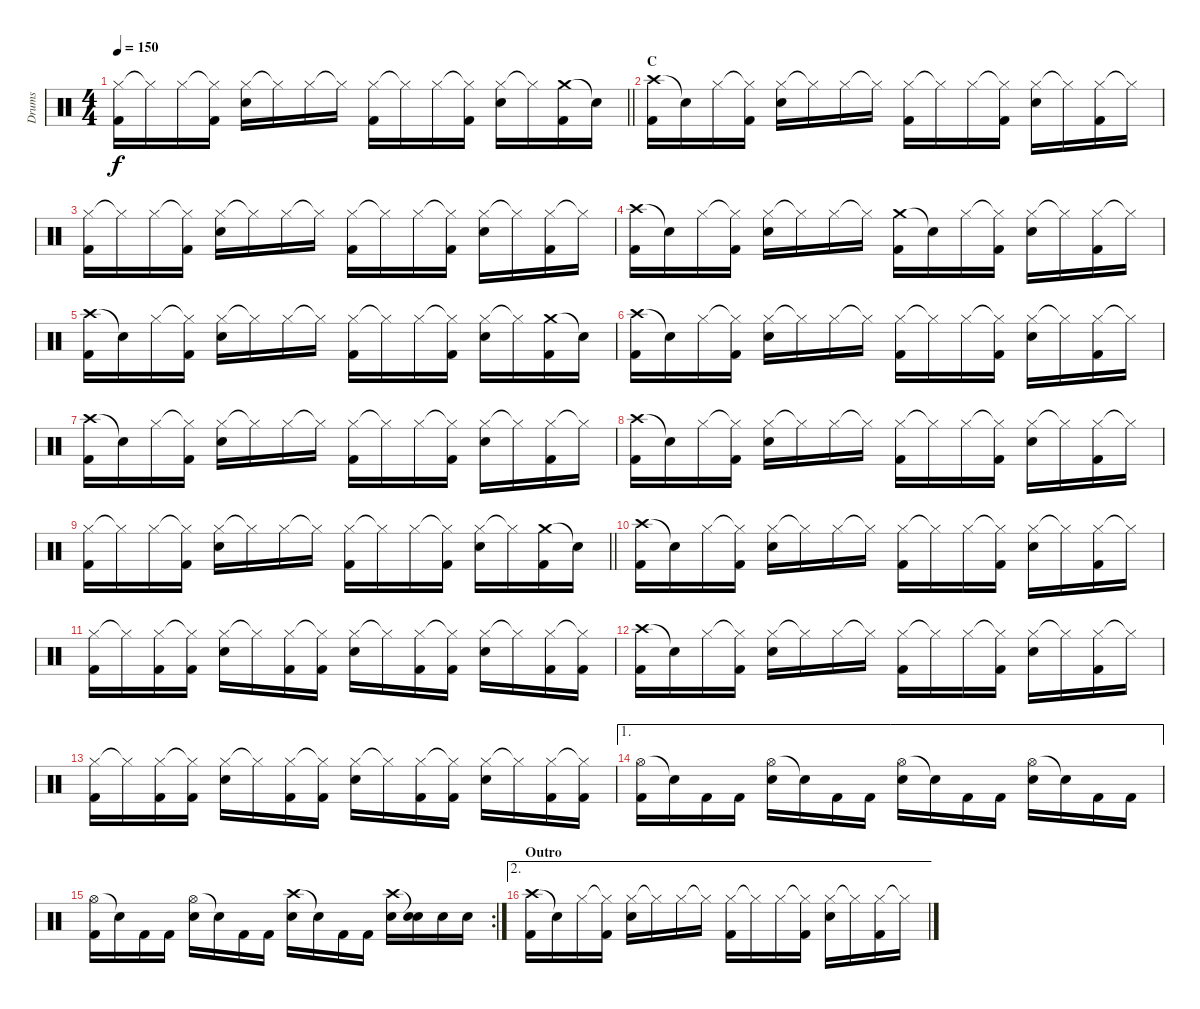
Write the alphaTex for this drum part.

\track ("Drums" "Drums") {instrument percussion}
\staff {score}
\articulation defaults
\ts (4 4)
\tempo 150
\clef neutral
\barLineRight lightlight
\ks c
("Hi-Hat (closed)" "Kick (hit) 2").16{dy f} "Hi-Hat (closed)"{t}.16 "Hi-Hat (closed)".16 ("Hi-Hat (closed)"{t} "Kick (hit) 2").16 ("Hi-Hat (closed)" "Snare (hit) 2").16 "Hi-Hat (closed)"{t}.16 "Hi-Hat (closed)".16 "Hi-Hat (closed)"{t}.16 ("Hi-Hat (closed)" "Kick (hit) 2").16 "Hi-Hat (closed)"{t}.16 "Hi-Hat (closed)".16 ("Hi-Hat (closed)"{t} "Kick (hit) 2").16 ("Hi-Hat (closed)" "Snare (hit) 2").16 "Hi-Hat (closed)"{t}.16 ("Crash medium (hit)" "Kick (hit) 2").16 "Snare (hit)"{t}.16 |
\section ("" "C")
("Crash high (hit)" "Kick (hit) 2").16 "Snare (hit)"{t}.16 "Hi-Hat (closed)".16 ("Hi-Hat (closed)"{t} "Kick (hit) 2").16 ("Hi-Hat (closed)" "Snare (hit) 2").16 "Hi-Hat (closed)"{t}.16 "Hi-Hat (closed)".16 "Hi-Hat (closed)"{t}.16 ("Hi-Hat (closed)" "Kick (hit) 2").16 "Hi-Hat (closed)"{t}.16 "Hi-Hat (closed)".16 ("Hi-Hat (closed)"{t} "Kick (hit) 2").16 ("Hi-Hat (closed)" "Snare (hit) 2").16 "Hi-Hat (closed)"{t}.16 ("Hi-Hat (closed)" "Kick (hit) 2").16 "Hi-Hat (closed)"{t}.16 |
("Hi-Hat (closed)" "Kick (hit) 2").16 "Hi-Hat (closed)"{t}.16 "Hi-Hat (closed)".16 ("Hi-Hat (closed)"{t} "Kick (hit) 2").16 ("Hi-Hat (closed)" "Snare (hit) 2").16 "Hi-Hat (closed)"{t}.16 "Hi-Hat (closed)".16 "Hi-Hat (closed)"{t}.16 ("Hi-Hat (closed)" "Kick (hit) 2").16 "Hi-Hat (closed)"{t}.16 "Hi-Hat (closed)".16 ("Hi-Hat (closed)"{t} "Kick (hit) 2").16 ("Hi-Hat (closed)" "Snare (hit) 2").16 "Hi-Hat (closed)"{t}.16 ("Hi-Hat (closed)" "Kick (hit) 2").16 "Hi-Hat (closed)"{t}.16 |
("Crash high (hit)" "Kick (hit) 2").16 "Snare (hit)"{t}.16 "Hi-Hat (closed)".16 ("Hi-Hat (closed)"{t} "Kick (hit) 2").16 ("Hi-Hat (closed)" "Snare (hit) 2").16 "Hi-Hat (closed)"{t}.16 "Hi-Hat (closed)".16 "Hi-Hat (closed)"{t}.16 ("Crash medium (hit)" "Kick (hit) 2").16 "Snare (hit)"{t}.16 "Hi-Hat (closed)".16 ("Hi-Hat (closed)"{t} "Kick (hit) 2").16 ("Hi-Hat (closed)" "Snare (hit) 2").16 "Hi-Hat (closed)"{t}.16 ("Hi-Hat (closed)" "Kick (hit) 2").16 "Hi-Hat (closed)"{t}.16 |
("Crash high (hit)" "Kick (hit) 2").16 "Snare (hit)"{t}.16 "Hi-Hat (closed)".16 ("Hi-Hat (closed)"{t} "Kick (hit) 2").16 ("Hi-Hat (closed)" "Snare (hit) 2").16 "Hi-Hat (closed)"{t}.16 "Hi-Hat (closed)".16 "Hi-Hat (closed)"{t}.16 ("Hi-Hat (closed)" "Kick (hit) 2").16 "Hi-Hat (closed)"{t}.16 "Hi-Hat (closed)".16 ("Hi-Hat (closed)"{t} "Kick (hit) 2").16 ("Hi-Hat (closed)" "Snare (hit) 2").16 "Hi-Hat (closed)"{t}.16 ("Crash medium (hit)" "Kick (hit) 2").16 "Snare (hit)"{t}.16 |
("Crash high (hit)" "Kick (hit) 2").16 "Snare (hit)"{t}.16 "Hi-Hat (closed)".16 ("Hi-Hat (closed)"{t} "Kick (hit) 2").16 ("Hi-Hat (closed)" "Snare (hit) 2").16 "Hi-Hat (closed)"{t}.16 "Hi-Hat (closed)".16 "Hi-Hat (closed)"{t}.16 ("Hi-Hat (closed)" "Kick (hit) 2").16 "Hi-Hat (closed)"{t}.16 "Hi-Hat (closed)".16 ("Hi-Hat (closed)"{t} "Kick (hit) 2").16 ("Hi-Hat (closed)" "Snare (hit) 2").16 "Hi-Hat (closed)"{t}.16 ("Hi-Hat (closed)" "Kick (hit) 2").16 "Hi-Hat (closed)"{t}.16 |
("Crash high (hit)" "Kick (hit) 2").16 "Snare (hit)"{t}.16 "Hi-Hat (closed)".16 ("Hi-Hat (closed)"{t} "Kick (hit) 2").16 ("Hi-Hat (closed)" "Snare (hit) 2").16 "Hi-Hat (closed)"{t}.16 "Hi-Hat (closed)".16 "Hi-Hat (closed)"{t}.16 ("Hi-Hat (closed)" "Kick (hit) 2").16 "Hi-Hat (closed)"{t}.16 "Hi-Hat (closed)".16 ("Hi-Hat (closed)"{t} "Kick (hit) 2").16 ("Hi-Hat (closed)" "Snare (hit) 2").16 "Hi-Hat (closed)"{t}.16 ("Hi-Hat (closed)" "Kick (hit) 2").16 "Hi-Hat (closed)"{t}.16 |
("Crash high (hit)" "Kick (hit) 2").16 "Snare (hit)"{t}.16 "Hi-Hat (closed)".16 ("Hi-Hat (closed)"{t} "Kick (hit) 2").16 ("Hi-Hat (closed)" "Snare (hit) 2").16 "Hi-Hat (closed)"{t}.16 "Hi-Hat (closed)".16 "Hi-Hat (closed)"{t}.16 ("Hi-Hat (closed)" "Kick (hit) 2").16 "Hi-Hat (closed)"{t}.16 "Hi-Hat (closed)".16 ("Hi-Hat (closed)"{t} "Kick (hit) 2").16 ("Hi-Hat (closed)" "Snare (hit) 2").16 "Hi-Hat (closed)"{t}.16 ("Hi-Hat (closed)" "Kick (hit) 2").16 "Hi-Hat (closed)"{t}.16 |
\barLineRight lightlight
("Hi-Hat (closed)" "Kick (hit) 2").16 "Hi-Hat (closed)"{t}.16 "Hi-Hat (closed)".16 ("Hi-Hat (closed)"{t} "Kick (hit) 2").16 ("Hi-Hat (closed)" "Snare (hit) 2").16 "Hi-Hat (closed)"{t}.16 "Hi-Hat (closed)".16 "Hi-Hat (closed)"{t}.16 ("Hi-Hat (closed)" "Kick (hit) 2").16 "Hi-Hat (closed)"{t}.16 "Hi-Hat (closed)".16 ("Hi-Hat (closed)"{t} "Kick (hit) 2").16 ("Hi-Hat (closed)" "Snare (hit) 2").16 "Hi-Hat (closed)"{t}.16 ("Crash medium (hit)" "Kick (hit) 2").16 "Snare (hit)"{t}.16 |
("Crash high (hit)" "Kick (hit) 2").16 "Snare (hit)"{t}.16 "Hi-Hat (closed)".16 ("Hi-Hat (closed)"{t} "Kick (hit) 2").16 ("Hi-Hat (closed)" "Snare (hit) 2").16 "Hi-Hat (closed)"{t}.16 "Hi-Hat (closed)".16 "Hi-Hat (closed)"{t}.16 ("Hi-Hat (closed)" "Kick (hit) 2").16 "Hi-Hat (closed)"{t}.16 "Hi-Hat (closed)".16 ("Hi-Hat (closed)"{t} "Kick (hit) 2").16 ("Hi-Hat (closed)" "Snare (hit) 2").16 "Hi-Hat (closed)"{t}.16 ("Hi-Hat (closed)" "Kick (hit) 2").16 "Hi-Hat (closed)"{t}.16 |
("Hi-Hat (closed)" "Kick (hit) 2").16 "Hi-Hat (closed)"{t}.16 ("Hi-Hat (closed)" "Kick (hit) 2").16 ("Hi-Hat (closed)"{t} "Kick (hit) 2").16 ("Hi-Hat (closed)" "Snare (hit) 2").16 "Hi-Hat (closed)"{t}.16 ("Hi-Hat (closed)" "Kick (hit) 2").16 ("Hi-Hat (closed)"{t} "Kick (hit) 2").16 ("Hi-Hat (closed)" "Snare (hit) 2").16 "Hi-Hat (closed)"{t}.16 ("Hi-Hat (closed)" "Kick (hit) 2").16 ("Hi-Hat (closed)"{t} "Kick (hit) 2").16 ("Hi-Hat (closed)" "Snare (hit) 2").16 "Hi-Hat (closed)"{t}.16 ("Hi-Hat (closed)" "Kick (hit) 2").16 ("Hi-Hat (closed)"{t} "Kick (hit) 2").16 |
("Crash high (hit)" "Kick (hit) 2").16 "Snare (hit)"{t}.16 "Hi-Hat (closed)".16 ("Hi-Hat (closed)"{t} "Kick (hit) 2").16 ("Hi-Hat (closed)" "Snare (hit) 2").16 "Hi-Hat (closed)"{t}.16 "Hi-Hat (closed)".16 "Hi-Hat (closed)"{t}.16 ("Hi-Hat (closed)" "Kick (hit) 2").16 "Hi-Hat (closed)"{t}.16 "Hi-Hat (closed)".16 ("Hi-Hat (closed)"{t} "Kick (hit) 2").16 ("Hi-Hat (closed)" "Snare (hit) 2").16 "Hi-Hat (closed)"{t}.16 ("Hi-Hat (closed)" "Kick (hit) 2").16 "Hi-Hat (closed)"{t}.16 |
("Hi-Hat (closed)" "Kick (hit) 2").16 "Hi-Hat (closed)"{t}.16 ("Hi-Hat (closed)" "Kick (hit) 2").16 ("Hi-Hat (closed)"{t} "Kick (hit) 2").16 ("Hi-Hat (closed)" "Snare (hit) 2").16 "Hi-Hat (closed)"{t}.16 ("Hi-Hat (closed)" "Kick (hit) 2").16 ("Hi-Hat (closed)"{t} "Kick (hit) 2").16 ("Hi-Hat (closed)" "Snare (hit) 2").16 "Hi-Hat (closed)"{t}.16 ("Hi-Hat (closed)" "Kick (hit) 2").16 ("Hi-Hat (closed)"{t} "Kick (hit) 2").16 ("Hi-Hat (closed)" "Snare (hit) 2").16 "Hi-Hat (closed)"{t}.16 ("Hi-Hat (closed)" "Kick (hit) 2").16 ("Hi-Hat (closed)"{t} "Kick (hit) 2").16 |
\ae 1
("Hi-Hat (open)" "Kick (hit) 2").16 "Snare (hit)"{t}.16 "Kick (hit) 2".16 "Kick (hit) 2".16 ("Hi-Hat (open)" "Snare (hit) 2").16 "Snare (hit)"{t}.16 "Kick (hit) 2".16 "Kick (hit) 2".16 ("Hi-Hat (open)" "Snare (hit) 2").16 "Snare (hit)"{t}.16 "Kick (hit) 2".16 "Kick (hit) 2".16 ("Hi-Hat (open)" "Snare (hit) 2").16 "Snare (hit)"{t}.16 "Kick (hit) 2".16 "Kick (hit) 2".16 |
\rc 2
("Hi-Hat (open)" "Kick (hit) 2").16 "Snare (hit)"{t}.16 "Kick (hit) 2".16 "Kick (hit) 2".16 ("Hi-Hat (open)" "Snare (hit) 2").16 "Snare (hit)"{t}.16 "Kick (hit) 2".16 "Kick (hit) 2".16 ("Crash high (hit)" "Snare (hit) 2").16 "Snare (hit)"{t}.16 "Kick (hit) 2".16 "Kick (hit) 2".16 ("Crash high (hit)" "Snare (hit) 2").16 ("Snare (hit)"{t} "Snare (hit) 2").16 "Snare (hit) 2".16 "Snare (hit) 2".16 |
\ae 2
\section ("" "Outro")
("Crash high (hit)" "Kick (hit) 2").16 "Snare (hit)"{t}.16 "Hi-Hat (closed)".16 ("Hi-Hat (closed)"{t} "Kick (hit) 2").16 ("Hi-Hat (closed)" "Snare (hit) 2").16 "Hi-Hat (closed)"{t}.16 "Hi-Hat (closed)".16 "Hi-Hat (closed)"{t}.16 ("Hi-Hat (closed)" "Kick (hit) 2").16 "Hi-Hat (closed)"{t}.16 "Hi-Hat (closed)".16 ("Hi-Hat (closed)"{t} "Kick (hit) 2").16 ("Hi-Hat (closed)" "Snare (hit) 2").16 "Hi-Hat (closed)"{t}.16 ("Hi-Hat (closed)" "Kick (hit) 2").16 "Hi-Hat (closed)"{t}.16
